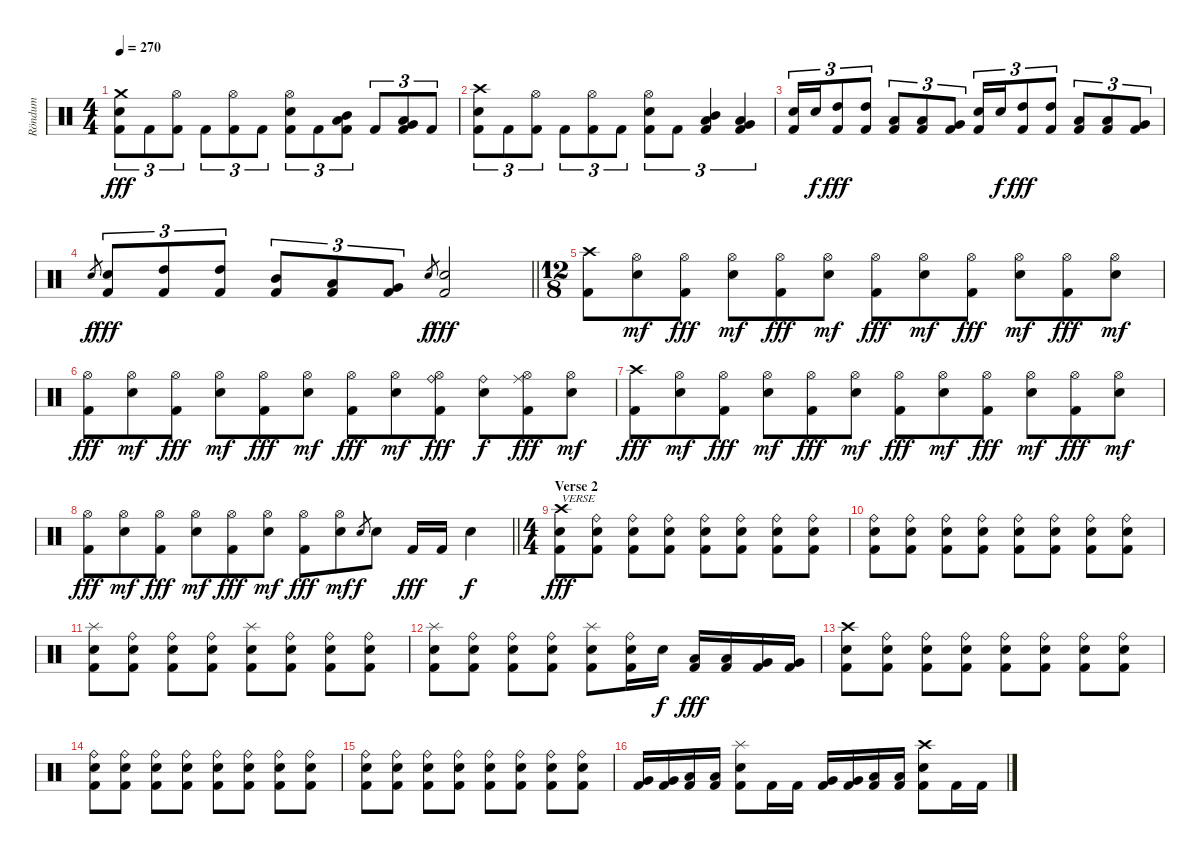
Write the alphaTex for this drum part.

\track ("Röndum" "Röndum") {instrument percussion}
\staff {score}
\articulation defaults
\ts (4 4)
\tempo 270
\clef neutral
\ks c
("Crash medium (hit)" "Snare (hit) 2" "Kick (hit) 2").8{tu (3 2) dy fff} "Kick (hit) 2".8{tu (3 2)} ("Hi-Hat (open)" "Kick (hit) 2").8{tu (3 2)} "Kick (hit) 2".8{tu (3 2)} ("Hi-Hat (open)" "Kick (hit) 2").8{tu (3 2)} "Kick (hit) 2".8{tu (3 2)} ("Hi-Hat (open)" "Snare (hit) 2" "Kick (hit) 2").8{tu (3 2)} "Kick (hit) 2".8{tu (3 2)} ("Low Tom (hit)" "Mid Tom (hit)" "Kick (hit) 2").8{tu (3 2)} "Kick (hit) 2".8{tu (3 2)} ("Very Low Tom (hit)" "Low Tom (hit)" "Kick (hit) 2").8{tu (3 2)} "Kick (hit) 2".8{tu (3 2)} |
("Crash high (hit)" "Snare (hit) 2" "Kick (hit) 2").8{tu (3 2)} "Kick (hit) 2".8{tu (3 2)} ("Hi-Hat (open)" "Kick (hit) 2").8{tu (3 2)} "Kick (hit) 2".8{tu (3 2)} ("Hi-Hat (open)" "Kick (hit) 2").8{tu (3 2)} "Kick (hit) 2".8{tu (3 2)} ("Hi-Hat (open)" "Snare (hit) 2" "Kick (hit) 2").8{tu (3 2)} "Kick (hit) 2".8{tu (3 2)} ("Mid Tom (hit)" "Low Tom (hit)" "Kick (hit) 2").4{tu (3 2)} ("Low Tom (hit)" "Very Low Tom (hit)" "Kick (hit) 2").4{tu (3 2)} |
("Snare (hit) 2" "Kick (hit) 2").16{tu (3 2)} "Snare (hit) 2".16{tu (3 2) dy f} ("High Tom (hit)" "Kick (hit) 2").8{tu (3 2) dy fff} ("High Tom (hit)" "Kick (hit) 2").8{tu (3 2)} ("Low Tom (hit)" "Kick (hit) 2").8{tu (3 2)} ("Low Tom (hit)" "Kick (hit) 2").8{tu (3 2)} ("Very Low Tom (hit)" "Kick (hit) 2").8{tu (3 2)} ("Snare (hit) 2" "Kick (hit) 2").16{tu (3 2)} "Snare (hit) 2".16{tu (3 2) dy f} ("High Tom (hit)" "Kick (hit) 2").8{tu (3 2) dy fff} ("High Tom (hit)" "Kick (hit) 2").8{tu (3 2)} ("Low Tom (hit)" "Kick (hit) 2").8{tu (3 2)} ("Low Tom (hit)" "Kick (hit) 2").8{tu (3 2)} ("Very Low Tom (hit)" "Kick (hit) 2").8{tu (3 2)} |
\barLineRight lightlight "Snare (hit) 2".8{gr dy f}
("Snare (hit) 2" "Kick (hit) 2").8{tu (3 2) dy fff} ("High Tom (hit)" "Kick (hit) 2").8{tu (3 2)} ("High Tom (hit)" "Kick (hit) 2").8{tu (3 2)} ("Mid Tom (hit)" "Kick (hit) 2").8{tu (3 2)} ("Low Tom (hit)" "Kick (hit) 2").8{tu (3 2)} ("Very Low Tom (hit)" "Kick (hit) 2").8{tu (3 2)} "Snare (hit) 2".8{gr dy f} ("Snare (hit) 2" "Kick (hit) 2").2{dy fff} |
\ts (12 8)
("Crash high (hit)" "Kick (hit) 2").8 ("Hi-Hat (open)" "Snare (hit) 2").8{dy mf} ("Hi-Hat (open)" "Kick (hit) 2").8{dy fff} ("Hi-Hat (open)" "Snare (hit) 2").8{dy mf} ("Hi-Hat (open)" "Kick (hit) 2").8{dy fff} ("Hi-Hat (open)" "Snare (hit) 2").8{dy mf} ("Hi-Hat (open)" "Kick (hit) 2").8{dy fff} ("Hi-Hat (open)" "Snare (hit) 2").8{dy mf} ("Hi-Hat (open)" "Kick (hit) 2").8{dy fff} ("Hi-Hat (open)" "Snare (hit) 2").8{dy mf} ("Hi-Hat (open)" "Kick (hit) 2").8{dy fff} ("Hi-Hat (open)" "Snare (hit) 2").8{dy mf} |
("Hi-Hat (open)" "Kick (hit) 2").8{dy fff} ("Hi-Hat (open)" "Snare (hit) 2").8{dy mf} ("Hi-Hat (open)" "Kick (hit) 2").8{dy fff} ("Hi-Hat (open)" "Snare (hit) 2").8{dy mf} ("Hi-Hat (open)" "Kick (hit) 2").8{dy fff} ("Hi-Hat (open)" "Snare (hit) 2").8{dy mf} ("Hi-Hat (open)" "Kick (hit) 2").8{dy fff} ("Hi-Hat (open)" "Snare (hit) 2").8{dy mf} ("Ride (bell)" "Hi-Hat (open)" "Kick (hit) 2").8{dy fff} ("Ride (bell)" "Snare (hit) 2").8{dy f} ("Ride (middle)" "Hi-Hat (open)" "Kick (hit) 2").8{dy fff} ("Hi-Hat (open)" "Snare (hit) 2").8{dy mf} |
("Crash high (hit)" "Kick (hit) 2").8{dy fff} ("Hi-Hat (open)" "Snare (hit) 2").8{dy mf} ("Hi-Hat (open)" "Kick (hit) 2").8{dy fff} ("Hi-Hat (open)" "Snare (hit) 2").8{dy mf} ("Hi-Hat (open)" "Kick (hit) 2").8{dy fff} ("Hi-Hat (open)" "Snare (hit) 2").8{dy mf} ("Hi-Hat (open)" "Kick (hit) 2").8{dy fff} ("Hi-Hat (open)" "Snare (hit) 2").8{dy mf} ("Hi-Hat (open)" "Kick (hit) 2").8{dy fff} ("Hi-Hat (open)" "Snare (hit) 2").8{dy mf} ("Hi-Hat (open)" "Kick (hit) 2").8{dy fff} ("Hi-Hat (open)" "Snare (hit) 2").8{dy mf} |
\barLineRight lightlight
("Hi-Hat (open)" "Kick (hit) 2").8{dy fff} ("Hi-Hat (open)" "Snare (hit) 2").8{dy mf} ("Hi-Hat (open)" "Kick (hit) 2").8{dy fff} ("Hi-Hat (open)" "Snare (hit) 2").8{dy mf} ("Hi-Hat (open)" "Kick (hit) 2").8{dy fff} ("Hi-Hat (open)" "Snare (hit) 2").8{dy mf} ("Hi-Hat (open)" "Kick (hit) 2").8{dy fff} ("Hi-Hat (open)" "Snare (hit) 2").8{dy mf} "Snare (hit) 2".8{gr dy f} "Snare (hit) 2".8 "Kick (hit) 2".16{dy fff} "Kick (hit) 2".16 "Snare (hit) 2".4{dy f} |
\ts (4 4)
\section ("" "Verse 2")
("Crash high (hit)" "Snare (hit) 2" "Kick (hit) 2").8{txt "VERSE" dy fff} ("Ride (bell)" "Snare (hit) 2" "Kick (hit) 2").8 ("Ride (bell)" "Snare (hit) 2" "Kick (hit) 2").8 ("Ride (bell)" "Snare (hit) 2" "Kick (hit) 2").8 ("Ride (bell)" "Snare (hit) 2" "Kick (hit) 2").8 ("Ride (bell)" "Snare (hit) 2" "Kick (hit) 2").8 ("Ride (bell)" "Snare (hit) 2" "Kick (hit) 2").8 ("Ride (bell)" "Snare (hit) 2" "Kick (hit) 2").8 |
("Ride (bell)" "Snare (hit) 2" "Kick (hit) 2").8 ("Ride (bell)" "Snare (hit) 2" "Kick (hit) 2").8 ("Ride (bell)" "Snare (hit) 2" "Kick (hit) 2").8 ("Ride (bell)" "Snare (hit) 2" "Kick (hit) 2").8 ("Ride (bell)" "Snare (hit) 2" "Kick (hit) 2").8 ("Ride (bell)" "Snare (hit) 2" "Kick (hit) 2").8 ("Ride (bell)" "Snare (hit) 2" "Kick (hit) 2").8 ("Ride (bell)" "Snare (hit) 2" "Kick (hit) 2").8 |
("Splash (hit)" "Snare (hit) 2" "Kick (hit) 2").8 ("Ride (bell)" "Snare (hit) 2" "Kick (hit) 2").8 ("Ride (bell)" "Snare (hit) 2" "Kick (hit) 2").8 ("Ride (bell)" "Snare (hit) 2" "Kick (hit) 2").8 ("Splash (hit)" "Snare (hit) 2" "Kick (hit) 2").8 ("Ride (bell)" "Snare (hit) 2" "Kick (hit) 2").8 ("Ride (bell)" "Snare (hit) 2" "Kick (hit) 2").8 ("Ride (bell)" "Snare (hit) 2" "Kick (hit) 2").8 |
("Splash (hit)" "Snare (hit) 2" "Kick (hit) 2").8 ("Ride (bell)" "Snare (hit) 2" "Kick (hit) 2").8 ("Ride (bell)" "Snare (hit) 2" "Kick (hit) 2").8 ("Ride (bell)" "Snare (hit) 2" "Kick (hit) 2").8 ("Splash (hit)" "Snare (hit) 2" "Kick (hit) 2").8 ("Ride (bell)" "Snare (hit) 2" "Kick (hit) 2").16 "Snare (hit) 2".16{dy f} ("Low Tom (hit)" "Kick (hit) 2").16{dy fff} ("Low Tom (hit)" "Kick (hit) 2").16 ("Very Low Tom (hit)" "Kick (hit) 2").16 ("Very Low Tom (hit)" "Kick (hit) 2").16 |
("Crash high (hit)" "Snare (hit) 2" "Kick (hit) 2").8 ("Ride (bell)" "Snare (hit) 2" "Kick (hit) 2").8 ("Ride (bell)" "Snare (hit) 2" "Kick (hit) 2").8 ("Ride (bell)" "Snare (hit) 2" "Kick (hit) 2").8 ("Ride (bell)" "Snare (hit) 2" "Kick (hit) 2").8 ("Ride (bell)" "Snare (hit) 2" "Kick (hit) 2").8 ("Ride (bell)" "Snare (hit) 2" "Kick (hit) 2").8 ("Ride (bell)" "Snare (hit) 2" "Kick (hit) 2").8 |
("Ride (bell)" "Snare (hit) 2" "Kick (hit) 2").8 ("Ride (bell)" "Snare (hit) 2" "Kick (hit) 2").8 ("Ride (bell)" "Snare (hit) 2" "Kick (hit) 2").8 ("Ride (bell)" "Snare (hit) 2" "Kick (hit) 2").8 ("Ride (bell)" "Snare (hit) 2" "Kick (hit) 2").8 ("Ride (bell)" "Snare (hit) 2" "Kick (hit) 2").8 ("Ride (bell)" "Snare (hit) 2" "Kick (hit) 2").8 ("Ride (bell)" "Snare (hit) 2" "Kick (hit) 2").8 |
("Ride (bell)" "Snare (hit) 2" "Kick (hit) 2").8 ("Ride (bell)" "Snare (hit) 2" "Kick (hit) 2").8 ("Ride (bell)" "Snare (hit) 2" "Kick (hit) 2").8 ("Ride (bell)" "Snare (hit) 2" "Kick (hit) 2").8 ("Ride (bell)" "Snare (hit) 2" "Kick (hit) 2").8 ("Ride (bell)" "Snare (hit) 2" "Kick (hit) 2").8 ("Ride (bell)" "Snare (hit) 2" "Kick (hit) 2").8 ("Ride (bell)" "Snare (hit) 2" "Kick (hit) 2").8 |
("Very Low Tom (hit)" "Kick (hit) 2").16 ("Very Low Tom (hit)" "Kick (hit) 2").16 ("Low Floor Tom (hit)" "Kick (hit) 2").16 ("Low Floor Tom (hit)" "Kick (hit) 2").16 ("Splash (hit)" "Snare (hit) 2" "Kick (hit) 2").8 "Kick (hit) 2".16 "Kick (hit) 2".16 ("Very Low Tom (hit)" "Kick (hit) 2").16 ("Very Low Tom (hit)" "Kick (hit) 2").16 ("Low Floor Tom (hit)" "Kick (hit) 2").16 ("Low Floor Tom (hit)" "Kick (hit) 2").16 ("Crash high (hit)" "Snare (hit) 2" "Kick (hit) 2").8 "Kick (hit) 2".16 "Kick (hit) 2".16
